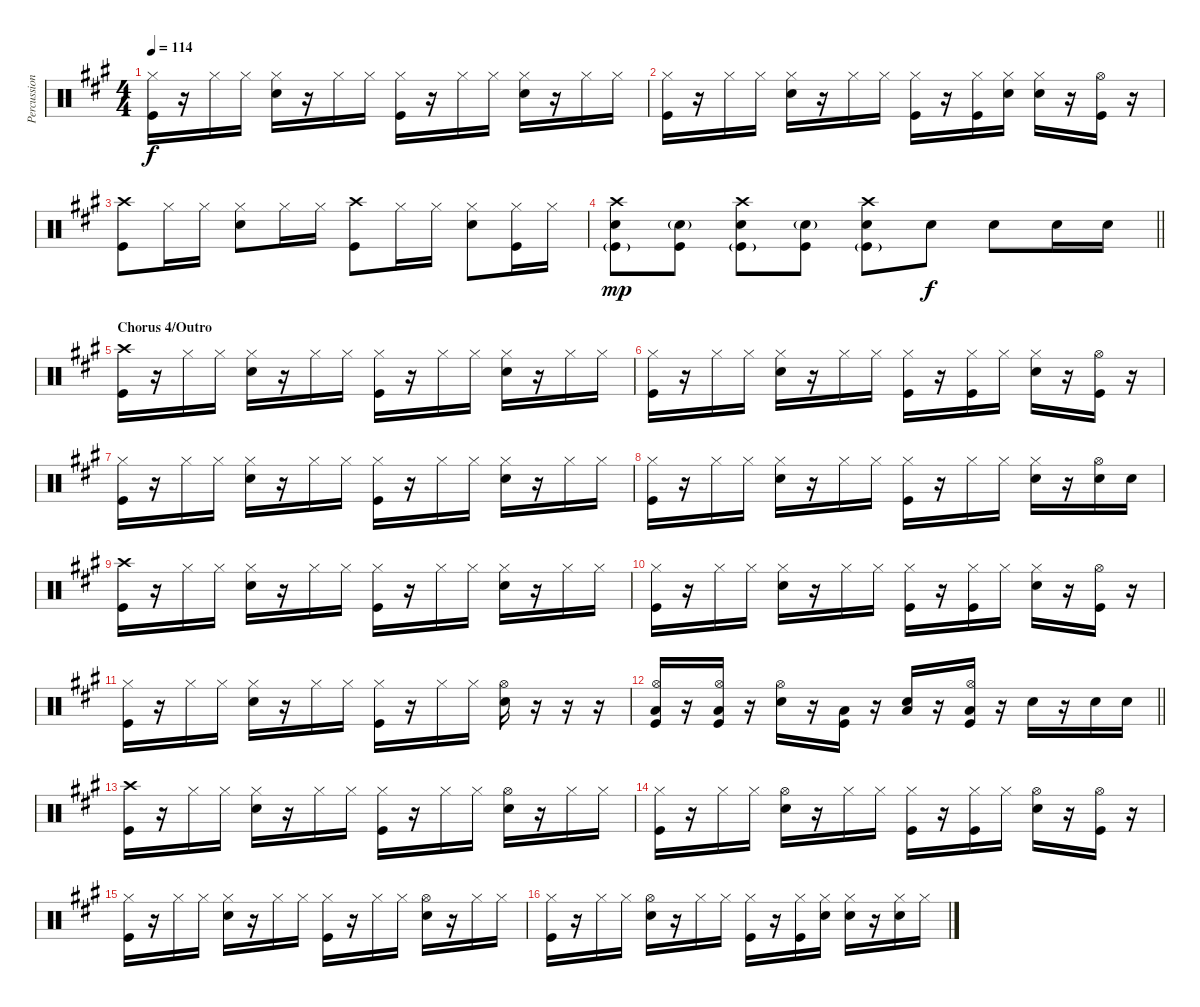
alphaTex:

\track ("Percussion" "Percussion") {instrument percussion}
\staff {score}
\articulation defaults
\ts (4 4)
\tempo 114
\clef neutral
\ks a
("Hi-Hat (closed)" "Kick (hit)").16{dy f} r.16 "Hi-Hat (closed)".16 "Hi-Hat (closed)".16 ("Hi-Hat (closed)" "Snare (hit) 2").16 r.16 "Hi-Hat (closed)".16 "Hi-Hat (closed)".16 ("Hi-Hat (closed)" "Kick (hit)").16 r.16 "Hi-Hat (closed)".16 "Hi-Hat (closed)".16 ("Hi-Hat (closed)" "Snare (hit) 2").16 r.16 "Hi-Hat (closed)".16 "Hi-Hat (closed)".16 |
("Hi-Hat (closed)" "Kick (hit)").16 r.16 "Hi-Hat (closed)".16 "Hi-Hat (closed)".16 ("Hi-Hat (closed)" "Snare (hit) 2").16 r.16 "Hi-Hat (closed)".16 "Hi-Hat (closed)".16 ("Hi-Hat (closed)" "Kick (hit)").16 r.16 ("Hi-Hat (closed)" "Kick (hit)").16 ("Hi-Hat (closed)" "Snare (hit) 2").16 ("Hi-Hat (closed)" "Snare (hit) 2").16 r.16 ("Hi-Hat (open)" "Kick (hit)").16 r.16 |
("Crash high (hit)" "Kick (hit)").8 "Hi-Hat (closed)".16 "Hi-Hat (closed)".16 ("Hi-Hat (closed)" "Snare (hit) 2").8 "Hi-Hat (closed)".16 "Hi-Hat (closed)".16 ("Crash high (hit)" "Kick (hit)").8 "Hi-Hat (closed)".16 "Hi-Hat (closed)".16 ("Hi-Hat (closed)" "Snare (hit) 2").8 ("Hi-Hat (closed)" "Kick (hit)").16 "Hi-Hat (closed)".16 |
\barLineRight lightlight
("Crash high (hit)" "Snare (hit) 2" "Kick (hit)"{g}).8{dy mp} ("Snare (hit) 2"{g} "Kick (hit)").8 ("Crash high (hit)" "Snare (hit) 2" "Kick (hit)"{g}).8 ("Snare (hit) 2"{g} "Kick (hit)").8 ("Crash high (hit)" "Snare (hit) 2" "Kick (hit)"{g}).8 "Snare (hit) 2".8{dy f} "Snare (hit) 2".8 "Snare (hit) 2".16 "Snare (hit) 2".16 |
\section ("" "Chorus 4/Outro")
("Crash high (hit)" "Kick (hit)").16 r.16 "Hi-Hat (closed)".16 "Hi-Hat (closed)".16 ("Hi-Hat (closed)" "Snare (hit) 2").16 r.16 "Hi-Hat (closed)".16 "Hi-Hat (closed)".16 ("Hi-Hat (closed)" "Kick (hit)").16 r.16 "Hi-Hat (closed)".16 "Hi-Hat (closed)".16 ("Hi-Hat (closed)" "Snare (hit) 2").16 r.16 "Hi-Hat (closed)".16 "Hi-Hat (closed)".16 |
("Hi-Hat (closed)" "Kick (hit)").16 r.16 "Hi-Hat (closed)".16 "Hi-Hat (closed)".16 ("Hi-Hat (closed)" "Snare (hit) 2").16 r.16 "Hi-Hat (closed)".16 "Hi-Hat (closed)".16 ("Hi-Hat (closed)" "Kick (hit)").16 r.16 ("Hi-Hat (closed)" "Kick (hit)").16 "Hi-Hat (closed)".16 ("Hi-Hat (closed)" "Snare (hit) 2").16 r.16 ("Hi-Hat (open)" "Kick (hit)").16 r.16 |
("Hi-Hat (closed)" "Kick (hit)").16 r.16 "Hi-Hat (closed)".16 "Hi-Hat (closed)".16 ("Hi-Hat (closed)" "Snare (hit) 2").16 r.16 "Hi-Hat (closed)".16 "Hi-Hat (closed)".16 ("Hi-Hat (closed)" "Kick (hit)").16 r.16 "Hi-Hat (closed)".16 "Hi-Hat (closed)".16 ("Hi-Hat (closed)" "Snare (hit) 2").16 r.16 "Hi-Hat (closed)".16 "Hi-Hat (closed)".16 |
("Hi-Hat (closed)" "Kick (hit)").16 r.16 "Hi-Hat (closed)".16 "Hi-Hat (closed)".16 ("Hi-Hat (closed)" "Snare (hit) 2").16 r.16 "Hi-Hat (closed)".16 "Hi-Hat (closed)".16 ("Hi-Hat (closed)" "Kick (hit)").16 r.16 "Hi-Hat (closed)".16 "Hi-Hat (closed)".16 ("Hi-Hat (closed)" "Snare (hit) 2").16 r.16 ("Hi-Hat (open)" "Snare (hit) 2").16 "Snare (hit) 2".16 |
("Crash high (hit)" "Kick (hit)").16 r.16 "Hi-Hat (closed)".16 "Hi-Hat (closed)".16 ("Hi-Hat (closed)" "Snare (hit) 2").16 r.16 "Hi-Hat (closed)".16 "Hi-Hat (closed)".16 ("Hi-Hat (closed)" "Kick (hit)").16 r.16 "Hi-Hat (closed)".16 "Hi-Hat (closed)".16 ("Hi-Hat (closed)" "Snare (hit) 2").16 r.16 "Hi-Hat (closed)".16 "Hi-Hat (closed)".16 |
("Hi-Hat (closed)" "Kick (hit)").16 r.16 "Hi-Hat (closed)".16 "Hi-Hat (closed)".16 ("Hi-Hat (closed)" "Snare (hit) 2").16 r.16 "Hi-Hat (closed)".16 "Hi-Hat (closed)".16 ("Hi-Hat (closed)" "Kick (hit)").16 r.16 ("Hi-Hat (closed)" "Kick (hit)").16 "Hi-Hat (closed)".16 ("Hi-Hat (closed)" "Snare (hit) 2").16 r.16 ("Hi-Hat (open)" "Kick (hit)").16 r.16 |
("Hi-Hat (closed)" "Kick (hit)").16 r.16 "Hi-Hat (closed)".16 "Hi-Hat (closed)".16 ("Hi-Hat (closed)" "Snare (hit) 2").16 r.16 "Hi-Hat (closed)".16 "Hi-Hat (closed)".16 ("Hi-Hat (closed)" "Kick (hit)").16 r.16 "Hi-Hat (closed)".16 "Hi-Hat (closed)".16 ("Hi-Hat (open)" "Snare (hit) 2").16 r.16 r.16 r.16 |
\barLineRight lightlight
("Hi-Hat (open)" "Low Tom (hit)" "Kick (hit)").16 r.16 ("Hi-Hat (open)" "Low Tom (hit)" "Kick (hit)").16 r.16 ("Hi-Hat (open)" "Snare (hit) 2").16 r.16 ("Low Tom (hit)" "Kick (hit)").16 r.16 ("Low Tom (hit)" "Snare (hit) 2").16 r.16 ("Hi-Hat (open)" "Low Tom (hit)" "Kick (hit)").16 r.16 "Snare (hit) 2".16 r.16 "Snare (hit) 2".16 "Snare (hit) 2".16 |
("Crash high (hit)" "Kick (hit)").16 r.16 "Hi-Hat (closed)".16 "Hi-Hat (closed)".16 ("Hi-Hat (closed)" "Snare (hit) 2").16 r.16 "Hi-Hat (closed)".16 "Hi-Hat (closed)".16 ("Hi-Hat (closed)" "Kick (hit)").16 r.16 "Hi-Hat (closed)".16 "Hi-Hat (closed)".16 ("Hi-Hat (open)" "Snare (hit) 2").16 r.16 "Hi-Hat (closed)".16 "Hi-Hat (closed)".16 |
("Hi-Hat (closed)" "Kick (hit)").16 r.16 "Hi-Hat (closed)".16 "Hi-Hat (closed)".16 ("Hi-Hat (open)" "Snare (hit) 2").16 r.16 "Hi-Hat (closed)".16 "Hi-Hat (closed)".16 ("Hi-Hat (closed)" "Kick (hit)").16 r.16 ("Hi-Hat (closed)" "Kick (hit)").16 "Hi-Hat (closed)".16 ("Hi-Hat (open)" "Snare (hit) 2").16 r.16 ("Hi-Hat (open)" "Kick (hit)").16 r.16 |
("Hi-Hat (closed)" "Kick (hit)").16 r.16 "Hi-Hat (closed)".16 "Hi-Hat (closed)".16 ("Hi-Hat (closed)" "Snare (hit) 2").16 r.16 "Hi-Hat (closed)".16 "Hi-Hat (closed)".16 ("Hi-Hat (closed)" "Kick (hit)").16 r.16 "Hi-Hat (closed)".16 "Hi-Hat (closed)".16 ("Hi-Hat (open)" "Snare (hit) 2").16 r.16 "Hi-Hat (closed)".16 "Hi-Hat (closed)".16 |
("Hi-Hat (closed)" "Kick (hit)").16 r.16 "Hi-Hat (closed)".16 "Hi-Hat (closed)".16 ("Hi-Hat (open)" "Snare (hit) 2").16 r.16 "Hi-Hat (closed)".16 "Hi-Hat (closed)".16 ("Hi-Hat (closed)" "Kick (hit)").16 r.16 ("Hi-Hat (closed)" "Kick (hit)").16 ("Hi-Hat (closed)" "Snare (hit) 2").16 ("Hi-Hat (closed)" "Snare (hit) 2").16 r.16 ("Hi-Hat (closed)" "Snare (hit) 2").16 "Hi-Hat (closed)".16
